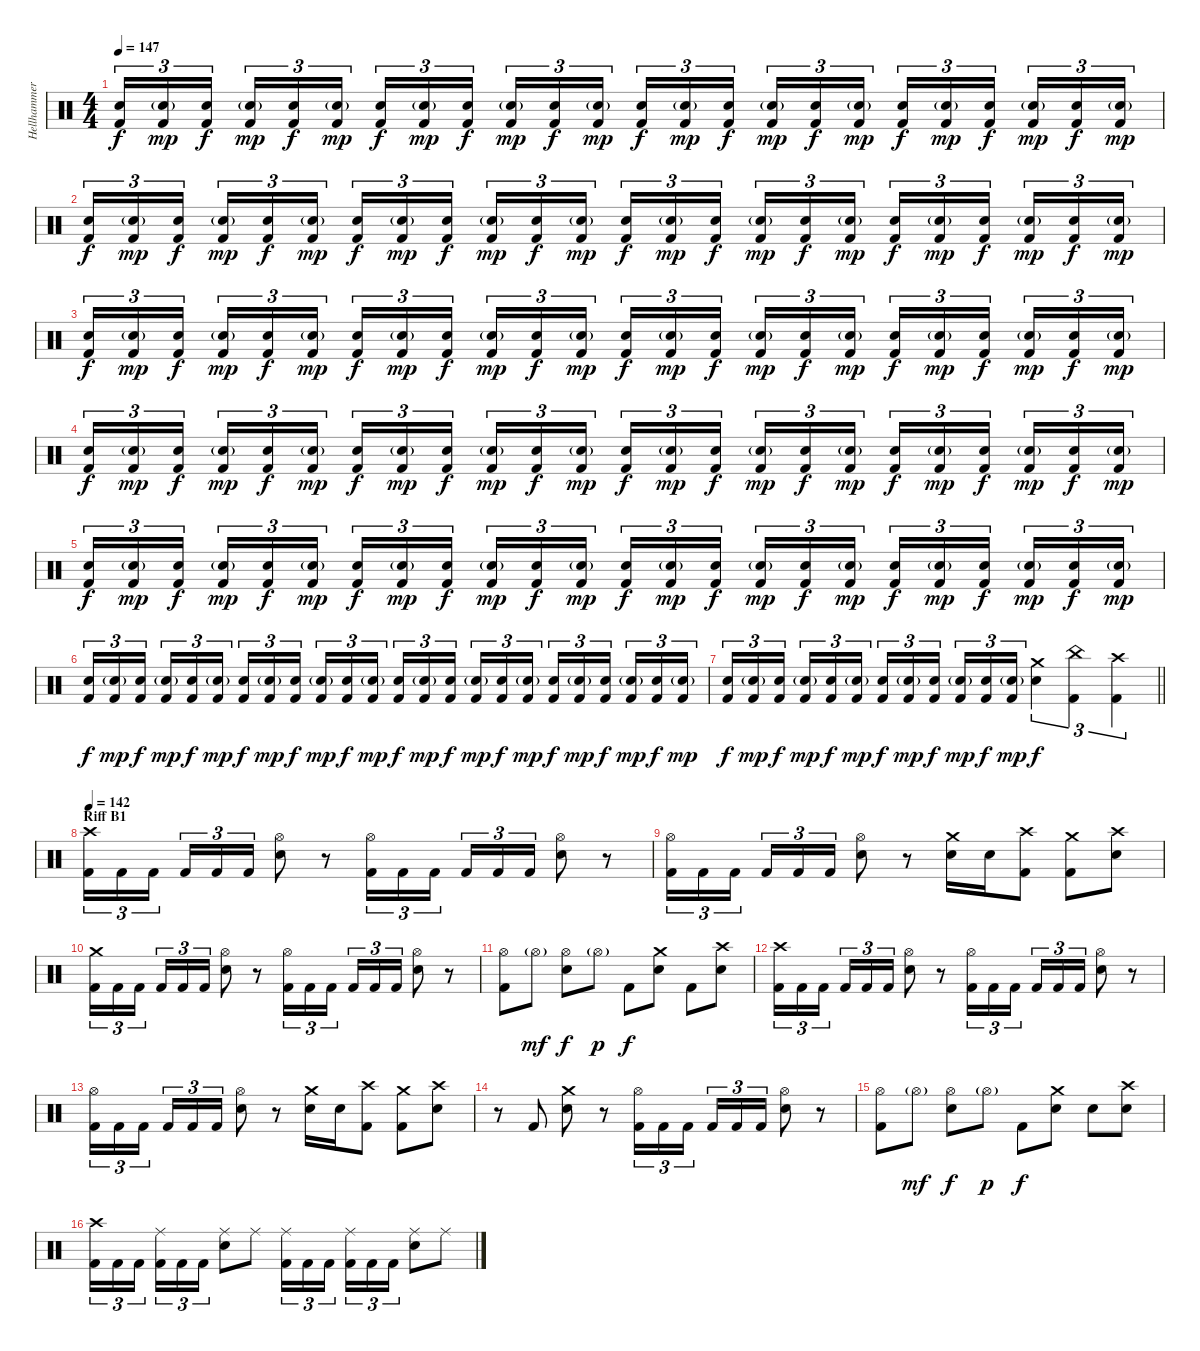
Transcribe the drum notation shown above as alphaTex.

\track ("Hellhammer" "Hellhammer") {instrument percussion}
\staff {score}
\articulation defaults
\ts (4 4)
\tempo 147
\clef neutral
\ks c
("Electric Snare (hit)" "Kick (hit) 2").16{tu (3 2) dy f} ("Electric Snare (hit)"{g} "Kick (hit) 2").16{tu (3 2) dy mp} ("Electric Snare (hit)" "Kick (hit) 2").16{tu (3 2) dy f beam splitsecondary} ("Electric Snare (hit)"{g} "Kick (hit) 2").16{tu (3 2) dy mp} ("Electric Snare (hit)" "Kick (hit) 2").16{tu (3 2) dy f} ("Electric Snare (hit)"{g} "Kick (hit) 2").16{tu (3 2) dy mp} ("Electric Snare (hit)" "Kick (hit) 2").16{tu (3 2) dy f} ("Electric Snare (hit)"{g} "Kick (hit) 2").16{tu (3 2) dy mp} ("Electric Snare (hit)" "Kick (hit) 2").16{tu (3 2) dy f beam splitsecondary} ("Electric Snare (hit)"{g} "Kick (hit) 2").16{tu (3 2) dy mp} ("Electric Snare (hit)" "Kick (hit) 2").16{tu (3 2) dy f} ("Electric Snare (hit)"{g} "Kick (hit) 2").16{tu (3 2) dy mp} ("Electric Snare (hit)" "Kick (hit) 2").16{tu (3 2) dy f} ("Electric Snare (hit)"{g} "Kick (hit) 2").16{tu (3 2) dy mp} ("Electric Snare (hit)" "Kick (hit) 2").16{tu (3 2) dy f beam splitsecondary} ("Electric Snare (hit)"{g} "Kick (hit) 2").16{tu (3 2) dy mp} ("Electric Snare (hit)" "Kick (hit) 2").16{tu (3 2) dy f} ("Electric Snare (hit)"{g} "Kick (hit) 2").16{tu (3 2) dy mp} ("Electric Snare (hit)" "Kick (hit) 2").16{tu (3 2) dy f} ("Electric Snare (hit)"{g} "Kick (hit) 2").16{tu (3 2) dy mp} ("Electric Snare (hit)" "Kick (hit) 2").16{tu (3 2) dy f beam splitsecondary} ("Electric Snare (hit)"{g} "Kick (hit) 2").16{tu (3 2) dy mp} ("Electric Snare (hit)" "Kick (hit) 2").16{tu (3 2) dy f} ("Electric Snare (hit)"{g} "Kick (hit) 2").16{tu (3 2) dy mp} |
("Electric Snare (hit)" "Kick (hit) 2").16{tu (3 2) dy f} ("Electric Snare (hit)"{g} "Kick (hit) 2").16{tu (3 2) dy mp} ("Electric Snare (hit)" "Kick (hit) 2").16{tu (3 2) dy f beam splitsecondary} ("Electric Snare (hit)"{g} "Kick (hit) 2").16{tu (3 2) dy mp} ("Electric Snare (hit)" "Kick (hit) 2").16{tu (3 2) dy f} ("Electric Snare (hit)"{g} "Kick (hit) 2").16{tu (3 2) dy mp} ("Electric Snare (hit)" "Kick (hit) 2").16{tu (3 2) dy f} ("Electric Snare (hit)"{g} "Kick (hit) 2").16{tu (3 2) dy mp} ("Electric Snare (hit)" "Kick (hit) 2").16{tu (3 2) dy f beam splitsecondary} ("Electric Snare (hit)"{g} "Kick (hit) 2").16{tu (3 2) dy mp} ("Electric Snare (hit)" "Kick (hit) 2").16{tu (3 2) dy f} ("Electric Snare (hit)"{g} "Kick (hit) 2").16{tu (3 2) dy mp} ("Electric Snare (hit)" "Kick (hit) 2").16{tu (3 2) dy f} ("Electric Snare (hit)"{g} "Kick (hit) 2").16{tu (3 2) dy mp} ("Electric Snare (hit)" "Kick (hit) 2").16{tu (3 2) dy f beam splitsecondary} ("Electric Snare (hit)"{g} "Kick (hit) 2").16{tu (3 2) dy mp} ("Electric Snare (hit)" "Kick (hit) 2").16{tu (3 2) dy f} ("Electric Snare (hit)"{g} "Kick (hit) 2").16{tu (3 2) dy mp} ("Electric Snare (hit)" "Kick (hit) 2").16{tu (3 2) dy f} ("Electric Snare (hit)"{g} "Kick (hit) 2").16{tu (3 2) dy mp} ("Electric Snare (hit)" "Kick (hit) 2").16{tu (3 2) dy f beam splitsecondary} ("Electric Snare (hit)"{g} "Kick (hit) 2").16{tu (3 2) dy mp} ("Electric Snare (hit)" "Kick (hit) 2").16{tu (3 2) dy f} ("Electric Snare (hit)"{g} "Kick (hit) 2").16{tu (3 2) dy mp} |
("Electric Snare (hit)" "Kick (hit) 2").16{tu (3 2) dy f} ("Electric Snare (hit)"{g} "Kick (hit) 2").16{tu (3 2) dy mp} ("Electric Snare (hit)" "Kick (hit) 2").16{tu (3 2) dy f beam splitsecondary} ("Electric Snare (hit)"{g} "Kick (hit) 2").16{tu (3 2) dy mp} ("Electric Snare (hit)" "Kick (hit) 2").16{tu (3 2) dy f} ("Electric Snare (hit)"{g} "Kick (hit) 2").16{tu (3 2) dy mp} ("Electric Snare (hit)" "Kick (hit) 2").16{tu (3 2) dy f} ("Electric Snare (hit)"{g} "Kick (hit) 2").16{tu (3 2) dy mp} ("Electric Snare (hit)" "Kick (hit) 2").16{tu (3 2) dy f beam splitsecondary} ("Electric Snare (hit)"{g} "Kick (hit) 2").16{tu (3 2) dy mp} ("Electric Snare (hit)" "Kick (hit) 2").16{tu (3 2) dy f} ("Electric Snare (hit)"{g} "Kick (hit) 2").16{tu (3 2) dy mp} ("Electric Snare (hit)" "Kick (hit) 2").16{tu (3 2) dy f} ("Electric Snare (hit)"{g} "Kick (hit) 2").16{tu (3 2) dy mp} ("Electric Snare (hit)" "Kick (hit) 2").16{tu (3 2) dy f beam splitsecondary} ("Electric Snare (hit)"{g} "Kick (hit) 2").16{tu (3 2) dy mp} ("Electric Snare (hit)" "Kick (hit) 2").16{tu (3 2) dy f} ("Electric Snare (hit)"{g} "Kick (hit) 2").16{tu (3 2) dy mp} ("Electric Snare (hit)" "Kick (hit) 2").16{tu (3 2) dy f} ("Electric Snare (hit)"{g} "Kick (hit) 2").16{tu (3 2) dy mp} ("Electric Snare (hit)" "Kick (hit) 2").16{tu (3 2) dy f beam splitsecondary} ("Electric Snare (hit)"{g} "Kick (hit) 2").16{tu (3 2) dy mp} ("Electric Snare (hit)" "Kick (hit) 2").16{tu (3 2) dy f} ("Electric Snare (hit)"{g} "Kick (hit) 2").16{tu (3 2) dy mp} |
("Electric Snare (hit)" "Kick (hit) 2").16{tu (3 2) dy f} ("Electric Snare (hit)"{g} "Kick (hit) 2").16{tu (3 2) dy mp} ("Electric Snare (hit)" "Kick (hit) 2").16{tu (3 2) dy f beam splitsecondary} ("Electric Snare (hit)"{g} "Kick (hit) 2").16{tu (3 2) dy mp} ("Electric Snare (hit)" "Kick (hit) 2").16{tu (3 2) dy f} ("Electric Snare (hit)"{g} "Kick (hit) 2").16{tu (3 2) dy mp} ("Electric Snare (hit)" "Kick (hit) 2").16{tu (3 2) dy f} ("Electric Snare (hit)"{g} "Kick (hit) 2").16{tu (3 2) dy mp} ("Electric Snare (hit)" "Kick (hit) 2").16{tu (3 2) dy f beam splitsecondary} ("Electric Snare (hit)"{g} "Kick (hit) 2").16{tu (3 2) dy mp} ("Electric Snare (hit)" "Kick (hit) 2").16{tu (3 2) dy f} ("Electric Snare (hit)"{g} "Kick (hit) 2").16{tu (3 2) dy mp} ("Electric Snare (hit)" "Kick (hit) 2").16{tu (3 2) dy f} ("Electric Snare (hit)"{g} "Kick (hit) 2").16{tu (3 2) dy mp} ("Electric Snare (hit)" "Kick (hit) 2").16{tu (3 2) dy f beam splitsecondary} ("Electric Snare (hit)"{g} "Kick (hit) 2").16{tu (3 2) dy mp} ("Electric Snare (hit)" "Kick (hit) 2").16{tu (3 2) dy f} ("Electric Snare (hit)"{g} "Kick (hit) 2").16{tu (3 2) dy mp} ("Electric Snare (hit)" "Kick (hit) 2").16{tu (3 2) dy f} ("Electric Snare (hit)"{g} "Kick (hit) 2").16{tu (3 2) dy mp} ("Electric Snare (hit)" "Kick (hit) 2").16{tu (3 2) dy f beam splitsecondary} ("Electric Snare (hit)"{g} "Kick (hit) 2").16{tu (3 2) dy mp} ("Electric Snare (hit)" "Kick (hit) 2").16{tu (3 2) dy f} ("Electric Snare (hit)"{g} "Kick (hit) 2").16{tu (3 2) dy mp} |
("Electric Snare (hit)" "Kick (hit) 2").16{tu (3 2) dy f} ("Electric Snare (hit)"{g} "Kick (hit) 2").16{tu (3 2) dy mp} ("Electric Snare (hit)" "Kick (hit) 2").16{tu (3 2) dy f beam splitsecondary} ("Electric Snare (hit)"{g} "Kick (hit) 2").16{tu (3 2) dy mp} ("Electric Snare (hit)" "Kick (hit) 2").16{tu (3 2) dy f} ("Electric Snare (hit)"{g} "Kick (hit) 2").16{tu (3 2) dy mp} ("Electric Snare (hit)" "Kick (hit) 2").16{tu (3 2) dy f} ("Electric Snare (hit)"{g} "Kick (hit) 2").16{tu (3 2) dy mp} ("Electric Snare (hit)" "Kick (hit) 2").16{tu (3 2) dy f beam splitsecondary} ("Electric Snare (hit)"{g} "Kick (hit) 2").16{tu (3 2) dy mp} ("Electric Snare (hit)" "Kick (hit) 2").16{tu (3 2) dy f} ("Electric Snare (hit)"{g} "Kick (hit) 2").16{tu (3 2) dy mp} ("Electric Snare (hit)" "Kick (hit) 2").16{tu (3 2) dy f} ("Electric Snare (hit)"{g} "Kick (hit) 2").16{tu (3 2) dy mp} ("Electric Snare (hit)" "Kick (hit) 2").16{tu (3 2) dy f beam splitsecondary} ("Electric Snare (hit)"{g} "Kick (hit) 2").16{tu (3 2) dy mp} ("Electric Snare (hit)" "Kick (hit) 2").16{tu (3 2) dy f} ("Electric Snare (hit)"{g} "Kick (hit) 2").16{tu (3 2) dy mp} ("Electric Snare (hit)" "Kick (hit) 2").16{tu (3 2) dy f} ("Electric Snare (hit)"{g} "Kick (hit) 2").16{tu (3 2) dy mp} ("Electric Snare (hit)" "Kick (hit) 2").16{tu (3 2) dy f beam splitsecondary} ("Electric Snare (hit)"{g} "Kick (hit) 2").16{tu (3 2) dy mp} ("Electric Snare (hit)" "Kick (hit) 2").16{tu (3 2) dy f} ("Electric Snare (hit)"{g} "Kick (hit) 2").16{tu (3 2) dy mp} |
("Electric Snare (hit)" "Kick (hit) 2").16{tu (3 2) dy f} ("Electric Snare (hit)"{g} "Kick (hit) 2").16{tu (3 2) dy mp} ("Electric Snare (hit)" "Kick (hit) 2").16{tu (3 2) dy f beam splitsecondary} ("Electric Snare (hit)"{g} "Kick (hit) 2").16{tu (3 2) dy mp} ("Electric Snare (hit)" "Kick (hit) 2").16{tu (3 2) dy f} ("Electric Snare (hit)"{g} "Kick (hit) 2").16{tu (3 2) dy mp} ("Electric Snare (hit)" "Kick (hit) 2").16{tu (3 2) dy f} ("Electric Snare (hit)"{g} "Kick (hit) 2").16{tu (3 2) dy mp} ("Electric Snare (hit)" "Kick (hit) 2").16{tu (3 2) dy f beam splitsecondary} ("Electric Snare (hit)"{g} "Kick (hit) 2").16{tu (3 2) dy mp} ("Electric Snare (hit)" "Kick (hit) 2").16{tu (3 2) dy f} ("Electric Snare (hit)"{g} "Kick (hit) 2").16{tu (3 2) dy mp} ("Electric Snare (hit)" "Kick (hit) 2").16{tu (3 2) dy f} ("Electric Snare (hit)"{g} "Kick (hit) 2").16{tu (3 2) dy mp} ("Electric Snare (hit)" "Kick (hit) 2").16{tu (3 2) dy f beam splitsecondary} ("Electric Snare (hit)"{g} "Kick (hit) 2").16{tu (3 2) dy mp} ("Electric Snare (hit)" "Kick (hit) 2").16{tu (3 2) dy f} ("Electric Snare (hit)"{g} "Kick (hit) 2").16{tu (3 2) dy mp} ("Electric Snare (hit)" "Kick (hit) 2").16{tu (3 2) dy f} ("Electric Snare (hit)"{g} "Kick (hit) 2").16{tu (3 2) dy mp} ("Electric Snare (hit)" "Kick (hit) 2").16{tu (3 2) dy f beam splitsecondary} ("Electric Snare (hit)"{g} "Kick (hit) 2").16{tu (3 2) dy mp} ("Electric Snare (hit)" "Kick (hit) 2").16{tu (3 2) dy f} ("Electric Snare (hit)"{g} "Kick (hit) 2").16{tu (3 2) dy mp} |
\barLineRight lightlight
("Electric Snare (hit)" "Kick (hit) 2").16{tu (3 2) dy f} ("Electric Snare (hit)"{g} "Kick (hit) 2").16{tu (3 2) dy mp} ("Electric Snare (hit)" "Kick (hit) 2").16{tu (3 2) dy f beam splitsecondary} ("Electric Snare (hit)"{g} "Kick (hit) 2").16{tu (3 2) dy mp} ("Electric Snare (hit)" "Kick (hit) 2").16{tu (3 2) dy f} ("Electric Snare (hit)"{g} "Kick (hit) 2").16{tu (3 2) dy mp} ("Electric Snare (hit)" "Kick (hit) 2").16{tu (3 2) dy f} ("Electric Snare (hit)"{g} "Kick (hit) 2").16{tu (3 2) dy mp} ("Electric Snare (hit)" "Kick (hit) 2").16{tu (3 2) dy f beam splitsecondary} ("Electric Snare (hit)"{g} "Kick (hit) 2").16{tu (3 2) dy mp} ("Electric Snare (hit)" "Kick (hit) 2").16{tu (3 2) dy f} ("Electric Snare (hit)"{g} "Kick (hit) 2").16{tu (3 2) dy mp} ("Crash medium (hit)" "Electric Snare (hit)").4{tu (3 2) dy f} ("China (hit)" "Kick (hit) 2").4{tu (3 2)} ("Crash high (hit)" "Kick (hit) 2").4{tu (3 2)} |
\section ("" "Riff B1")
\tempo 142
("Crash high (hit)" "Kick (hit) 2").16{tu (3 2)} "Kick (hit) 2".16{tu (3 2)} "Kick (hit) 2".16{tu (3 2) beam splitsecondary} "Kick (hit) 2".16{tu (3 2)} "Kick (hit) 2".16{tu (3 2)} "Kick (hit) 2".16{tu (3 2)} ("Hi-Hat (open)" "Electric Snare (hit)").8 r.8 ("Hi-Hat (open)" "Kick (hit) 2").16{tu (3 2)} "Kick (hit) 2".16{tu (3 2)} "Kick (hit) 2".16{tu (3 2) beam splitsecondary} "Kick (hit) 2".16{tu (3 2)} "Kick (hit) 2".16{tu (3 2)} "Kick (hit) 2".16{tu (3 2)} ("Hi-Hat (open)" "Electric Snare (hit)").8 r.8 |
("Hi-Hat (open)" "Kick (hit) 2").16{tu (3 2)} "Kick (hit) 2".16{tu (3 2)} "Kick (hit) 2".16{tu (3 2) beam splitsecondary} "Kick (hit) 2".16{tu (3 2)} "Kick (hit) 2".16{tu (3 2)} "Kick (hit) 2".16{tu (3 2)} ("Hi-Hat (open)" "Electric Snare (hit)").8 r.8 ("Crash medium (hit)" "Electric Snare (hit)").16 "Electric Snare (hit)".16 ("Crash high (hit)" "Kick (hit) 2").8 ("Crash medium (hit)" "Kick (hit) 2").8 ("Crash high (hit)" "Electric Snare (hit)").8 |
("Crash medium (hit)" "Kick (hit) 2").16{tu (3 2)} "Kick (hit) 2".16{tu (3 2)} "Kick (hit) 2".16{tu (3 2) beam splitsecondary} "Kick (hit) 2".16{tu (3 2)} "Kick (hit) 2".16{tu (3 2)} "Kick (hit) 2".16{tu (3 2)} ("Hi-Hat (open)" "Electric Snare (hit)").8 r.8 ("Hi-Hat (open)" "Kick (hit) 2").16{tu (3 2)} "Kick (hit) 2".16{tu (3 2)} "Kick (hit) 2".16{tu (3 2) beam splitsecondary} "Kick (hit) 2".16{tu (3 2)} "Kick (hit) 2".16{tu (3 2)} "Kick (hit) 2".16{tu (3 2)} ("Hi-Hat (open)" "Electric Snare (hit)").8 r.8 |
("Hi-Hat (open)" "Kick (hit) 2").8 "Hi-Hat (open)"{g}.8{dy mf} ("Hi-Hat (open)" "Electric Snare (hit)").8{dy f} "Hi-Hat (open)"{g}.8{dy p} "Kick (hit) 2".8{dy f} ("Crash medium (hit)" "Electric Snare (hit)").8 "Kick (hit) 2".8 ("Crash high (hit)" "Electric Snare (hit)").8 |
("Crash high (hit)" "Kick (hit) 2").16{tu (3 2)} "Kick (hit) 2".16{tu (3 2)} "Kick (hit) 2".16{tu (3 2) beam splitsecondary} "Kick (hit) 2".16{tu (3 2)} "Kick (hit) 2".16{tu (3 2)} "Kick (hit) 2".16{tu (3 2)} ("Hi-Hat (open)" "Electric Snare (hit)").8 r.8 ("Hi-Hat (open)" "Kick (hit) 2").16{tu (3 2)} "Kick (hit) 2".16{tu (3 2)} "Kick (hit) 2".16{tu (3 2) beam splitsecondary} "Kick (hit) 2".16{tu (3 2)} "Kick (hit) 2".16{tu (3 2)} "Kick (hit) 2".16{tu (3 2)} ("Hi-Hat (open)" "Electric Snare (hit)").8 r.8 |
("Hi-Hat (open)" "Kick (hit) 2").16{tu (3 2)} "Kick (hit) 2".16{tu (3 2)} "Kick (hit) 2".16{tu (3 2) beam splitsecondary} "Kick (hit) 2".16{tu (3 2)} "Kick (hit) 2".16{tu (3 2)} "Kick (hit) 2".16{tu (3 2)} ("Hi-Hat (open)" "Electric Snare (hit)").8 r.8 ("Crash medium (hit)" "Electric Snare (hit)").16 "Electric Snare (hit)".16 ("Crash high (hit)" "Kick (hit) 2").8 ("Crash medium (hit)" "Kick (hit) 2").8 ("Crash high (hit)" "Electric Snare (hit)").8 |
r.8 "Kick (hit) 2".8 ("Crash medium (hit)" "Electric Snare (hit)").8 r.8 ("Hi-Hat (open)" "Kick (hit) 2").16{tu (3 2)} "Kick (hit) 2".16{tu (3 2)} "Kick (hit) 2".16{tu (3 2) beam splitsecondary} "Kick (hit) 2".16{tu (3 2)} "Kick (hit) 2".16{tu (3 2)} "Kick (hit) 2".16{tu (3 2)} ("Hi-Hat (open)" "Electric Snare (hit)").8 r.8 |
("Hi-Hat (open)" "Kick (hit) 2").8 "Hi-Hat (open)"{g}.8{dy mf} ("Hi-Hat (open)" "Electric Snare (hit)").8{dy f} "Hi-Hat (open)"{g}.8{dy p} "Kick (hit) 2".8{dy f} ("Crash medium (hit)" "Electric Snare (hit)").8 "Electric Snare (hit)".8 ("Crash high (hit)" "Electric Snare (hit)").8 |
("Crash high (hit)" "Kick (hit) 2").16{tu (3 2)} "Kick (hit) 2".16{tu (3 2)} "Kick (hit) 2".16{tu (3 2) beam splitsecondary} ("Ride (middle)" "Kick (hit) 2").16{tu (3 2)} "Kick (hit) 2".16{tu (3 2)} "Kick (hit) 2".16{tu (3 2)} ("Ride (middle)" "Electric Snare (hit)").8 "Ride (middle)".8 ("Ride (middle)" "Kick (hit) 2").16{tu (3 2)} "Kick (hit) 2".16{tu (3 2)} "Kick (hit) 2".16{tu (3 2) beam splitsecondary} ("Ride (middle)" "Kick (hit) 2").16{tu (3 2)} "Kick (hit) 2".16{tu (3 2)} "Kick (hit) 2".16{tu (3 2)} ("Ride (middle)" "Electric Snare (hit)").8 "Ride (middle)".8
